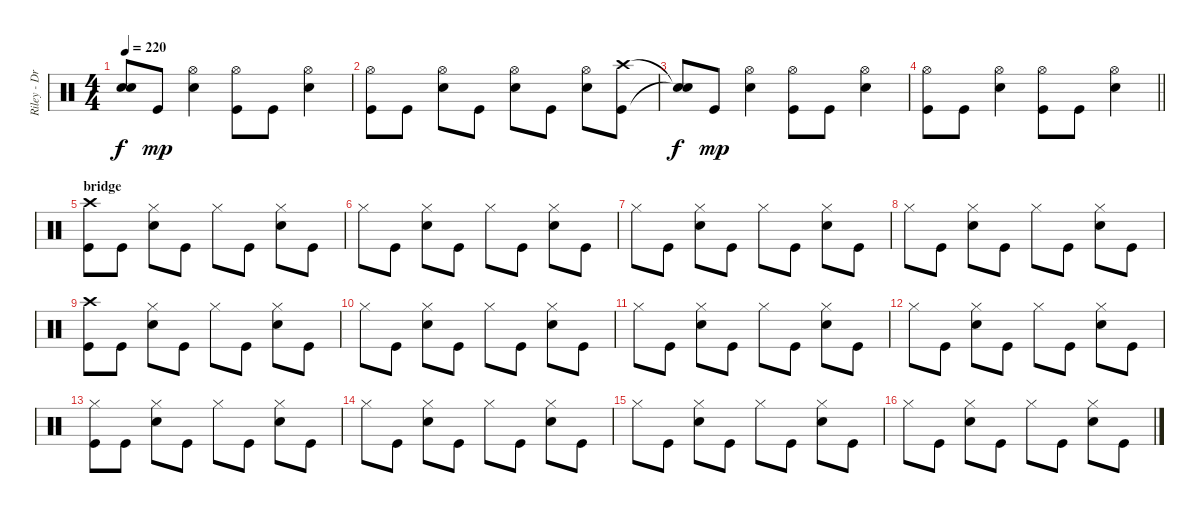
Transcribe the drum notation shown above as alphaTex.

\track ("Riley - Drums" "Riley - Dr") {instrument percussion}
\staff {score}
\articulation defaults
\ts (4 4)
\tempo 220
\clef neutral
\ks c
("Snare (hit)"{t} "Snare (hit)"{t}).8{dy f} "Kick (hit)".8{dy mp} ("Electric Snare (hit)" "Hi-Hat (open)").4 ("Kick (hit)" "Hi-Hat (open)").8 "Kick (hit)".8 ("Electric Snare (hit)" "Hi-Hat (open)").4 |
("Kick (hit)" "Hi-Hat (open)").8 "Kick (hit)".8 ("Electric Snare (hit)" "Hi-Hat (open)").8 "Kick (hit)".8 ("Electric Snare (hit)" "Hi-Hat (open)").8 "Kick (hit)".8 ("Electric Snare (hit)" "Hi-Hat (open)").8 ("Kick (hit)" "Crash high (hit)").8 |
("Snare (hit)"{t} "Snare (hit)"{t}).8{dy f} "Kick (hit)".8{dy mp} ("Electric Snare (hit)" "Hi-Hat (open)").4 ("Kick (hit)" "Hi-Hat (open)").8 "Kick (hit)".8 ("Electric Snare (hit)" "Hi-Hat (open)").4 |
\barLineRight lightlight
("Kick (hit)" "Hi-Hat (open)").8 "Kick (hit)".8 ("Electric Snare (hit)" "Hi-Hat (open)").4 ("Kick (hit)" "Hi-Hat (open)").8 "Kick (hit)".8 ("Electric Snare (hit)" "Hi-Hat (open)").4 |
\section ("" "bridge")
("Kick (hit)" "Crash high (hit)").8 "Kick (hit)".8 ("Electric Snare (hit)" "Hi-Hat (closed)").8 "Kick (hit)".8 "Hi-Hat (closed)".8 "Kick (hit)".8 ("Electric Snare (hit)" "Hi-Hat (closed)").8 "Kick (hit)".8 |
"Hi-Hat (closed)".8 "Kick (hit)".8 ("Electric Snare (hit)" "Hi-Hat (closed)").8 "Kick (hit)".8 "Hi-Hat (closed)".8 "Kick (hit)".8 ("Electric Snare (hit)" "Hi-Hat (closed)").8 "Kick (hit)".8 |
"Hi-Hat (closed)".8 "Kick (hit)".8 ("Electric Snare (hit)" "Hi-Hat (closed)").8 "Kick (hit)".8 "Hi-Hat (closed)".8 "Kick (hit)".8 ("Electric Snare (hit)" "Hi-Hat (closed)").8 "Kick (hit)".8 |
"Hi-Hat (closed)".8 "Kick (hit)".8 ("Electric Snare (hit)" "Hi-Hat (closed)").8 "Kick (hit)".8 "Hi-Hat (closed)".8 "Kick (hit)".8 ("Electric Snare (hit)" "Hi-Hat (closed)").8 "Kick (hit)".8 |
("Kick (hit)" "Crash high (hit)").8 "Kick (hit)".8 ("Electric Snare (hit)" "Hi-Hat (closed)").8 "Kick (hit)".8 "Hi-Hat (closed)".8 "Kick (hit)".8 ("Electric Snare (hit)" "Hi-Hat (closed)").8 "Kick (hit)".8 |
"Hi-Hat (closed)".8 "Kick (hit)".8 ("Electric Snare (hit)" "Hi-Hat (closed)").8 "Kick (hit)".8 "Hi-Hat (closed)".8 "Kick (hit)".8 ("Electric Snare (hit)" "Hi-Hat (closed)").8 "Kick (hit)".8 |
"Hi-Hat (closed)".8 "Kick (hit)".8 ("Electric Snare (hit)" "Hi-Hat (closed)").8 "Kick (hit)".8 "Hi-Hat (closed)".8 "Kick (hit)".8 ("Electric Snare (hit)" "Hi-Hat (closed)").8 "Kick (hit)".8 |
"Hi-Hat (closed)".8 "Kick (hit)".8 ("Electric Snare (hit)" "Hi-Hat (closed)").8 "Kick (hit)".8 "Hi-Hat (closed)".8 "Kick (hit)".8 ("Electric Snare (hit)" "Hi-Hat (closed)").8 "Kick (hit)".8 |
("Kick (hit)" "Hi-Hat (closed)").8 "Kick (hit)".8 ("Electric Snare (hit)" "Hi-Hat (closed)").8 "Kick (hit)".8 "Hi-Hat (closed)".8 "Kick (hit)".8 ("Electric Snare (hit)" "Hi-Hat (closed)").8 "Kick (hit)".8 |
"Hi-Hat (closed)".8 "Kick (hit)".8 ("Electric Snare (hit)" "Hi-Hat (closed)").8 "Kick (hit)".8 "Hi-Hat (closed)".8 "Kick (hit)".8 ("Electric Snare (hit)" "Hi-Hat (closed)").8 "Kick (hit)".8 |
"Hi-Hat (closed)".8 "Kick (hit)".8 ("Electric Snare (hit)" "Hi-Hat (closed)").8 "Kick (hit)".8 "Hi-Hat (closed)".8 "Kick (hit)".8 ("Electric Snare (hit)" "Hi-Hat (closed)").8 "Kick (hit)".8 |
"Hi-Hat (closed)".8 "Kick (hit)".8 ("Electric Snare (hit)" "Hi-Hat (closed)").8 "Kick (hit)".8 "Hi-Hat (closed)".8 "Kick (hit)".8 ("Electric Snare (hit)" "Hi-Hat (closed)").8 "Kick (hit)".8
